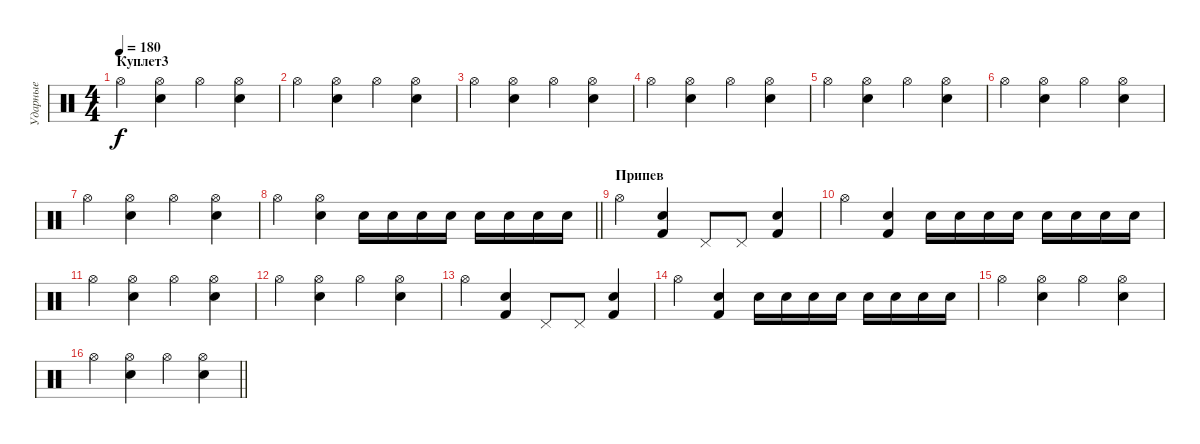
\track ("Ударные" "Ударные") {instrument percussion}
\staff {score}
\articulation defaults
\ts (4 4)
\section ("" "Куплет3")
\tempo 180
\clef neutral
\ks c "Hi-Hat (open)".4{dy f}
("Electric Snare (hit)" "Hi-Hat (open)").4 "Hi-Hat (open)".4 ("Electric Snare (hit)" "Hi-Hat (open)").4 |
"Hi-Hat (open)".4 ("Electric Snare (hit)" "Hi-Hat (open)").4 "Hi-Hat (open)".4 ("Electric Snare (hit)" "Hi-Hat (open)").4 |
"Hi-Hat (open)".4 ("Electric Snare (hit)" "Hi-Hat (open)").4 "Hi-Hat (open)".4 ("Electric Snare (hit)" "Hi-Hat (open)").4 |
"Hi-Hat (open)".4 ("Electric Snare (hit)" "Hi-Hat (open)").4 "Hi-Hat (open)".4 ("Electric Snare (hit)" "Hi-Hat (open)").4 |
"Hi-Hat (open)".4 ("Electric Snare (hit)" "Hi-Hat (open)").4 "Hi-Hat (open)".4 ("Electric Snare (hit)" "Hi-Hat (open)").4 |
"Hi-Hat (open)".4 ("Electric Snare (hit)" "Hi-Hat (open)").4 "Hi-Hat (open)".4 ("Electric Snare (hit)" "Hi-Hat (open)").4 |
"Hi-Hat (open)".4 ("Electric Snare (hit)" "Hi-Hat (open)").4 "Hi-Hat (open)".4 ("Electric Snare (hit)" "Hi-Hat (open)").4 |
\barLineRight lightlight "Hi-Hat (open)".4
("Electric Snare (hit)" "Hi-Hat (open)").4 "Electric Snare (hit)".16 "Electric Snare (hit)".16 "Snare (hit) 2".16 "Electric Snare (hit)".16 "Snare (hit) 2".16 "Electric Snare (hit)".16 "Snare (hit) 2".16 "Electric Snare (hit)".16 |
\section ("" "Припев")
"Hi-Hat (open)".4 ("Kick (hit) 2" "Electric Snare (hit)").4 "Pedal Hi-Hat (hit)".8 "Pedal Hi-Hat (hit)".8 ("Kick (hit) 2" "Electric Snare (hit)").4 |
"Hi-Hat (open)".4 ("Kick (hit) 2" "Electric Snare (hit)").4 "Electric Snare (hit)".16 "Electric Snare (hit)".16 "Snare (hit) 2".16 "Electric Snare (hit)".16 "Snare (hit) 2".16 "Electric Snare (hit)".16 "Snare (hit) 2".16 "Electric Snare (hit)".16 |
"Hi-Hat (open)".4 ("Electric Snare (hit)" "Hi-Hat (open)").4 "Hi-Hat (open)".4 ("Electric Snare (hit)" "Hi-Hat (open)").4 |
"Hi-Hat (open)".4 ("Electric Snare (hit)" "Hi-Hat (open)").4 "Hi-Hat (open)".4 ("Electric Snare (hit)" "Hi-Hat (open)").4 |
"Hi-Hat (open)".4 ("Kick (hit) 2" "Electric Snare (hit)").4 "Pedal Hi-Hat (hit)".8 "Pedal Hi-Hat (hit)".8 ("Kick (hit) 2" "Electric Snare (hit)").4 |
"Hi-Hat (open)".4 ("Kick (hit) 2" "Electric Snare (hit)").4 "Electric Snare (hit)".16 "Electric Snare (hit)".16 "Snare (hit) 2".16 "Electric Snare (hit)".16 "Snare (hit) 2".16 "Electric Snare (hit)".16 "Snare (hit) 2".16 "Electric Snare (hit)".16 |
"Hi-Hat (open)".4 ("Electric Snare (hit)" "Hi-Hat (open)").4 "Hi-Hat (open)".4 ("Electric Snare (hit)" "Hi-Hat (open)").4 |
\barLineRight lightlight "Hi-Hat (open)".4
("Electric Snare (hit)" "Hi-Hat (open)").4 "Hi-Hat (open)".4 ("Electric Snare (hit)" "Hi-Hat (open)").4
